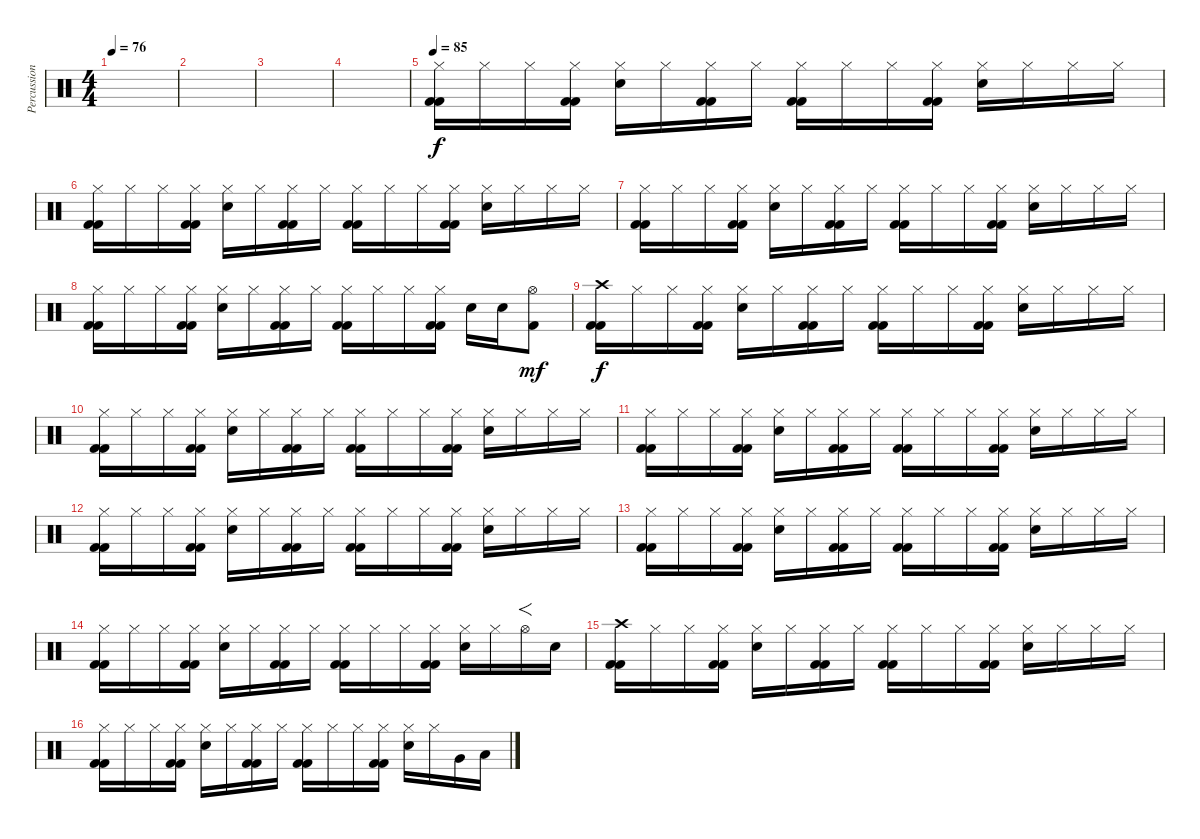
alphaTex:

\track ("Percussion" "Percussion") {instrument percussion}
\staff {score}
\articulation defaults
\ts (4 4)
\tempo 76
\clef neutral
\ks c
|
|
|
|
\tempo 85
("Kick (hit) 2" "Hi-Hat (closed)" "Kick (hit) 2").16 "Hi-Hat (closed)".16 "Hi-Hat (closed)".16 ("Kick (hit) 2" "Hi-Hat (closed)" "Kick (hit) 2").16 ("Hi-Hat (closed)" "Electric Snare (hit)").16 "Hi-Hat (closed)".16 ("Kick (hit) 2" "Hi-Hat (closed)" "Kick (hit) 2").16 "Hi-Hat (closed)".16 ("Kick (hit) 2" "Hi-Hat (closed)" "Kick (hit) 2").16 "Hi-Hat (closed)".16 "Hi-Hat (closed)".16 ("Kick (hit) 2" "Hi-Hat (closed)" "Kick (hit) 2").16 ("Hi-Hat (closed)" "Electric Snare (hit)").16 "Hi-Hat (closed)".16 "Hi-Hat (closed)".16 "Hi-Hat (closed)".16 |
("Kick (hit) 2" "Hi-Hat (closed)" "Kick (hit) 2").16 "Hi-Hat (closed)".16 "Hi-Hat (closed)".16 ("Kick (hit) 2" "Hi-Hat (closed)" "Kick (hit) 2").16 ("Hi-Hat (closed)" "Electric Snare (hit)").16 "Hi-Hat (closed)".16 ("Kick (hit) 2" "Hi-Hat (closed)" "Kick (hit) 2").16 "Hi-Hat (closed)".16 ("Kick (hit) 2" "Hi-Hat (closed)" "Kick (hit) 2").16 "Hi-Hat (closed)".16 "Hi-Hat (closed)".16 ("Kick (hit) 2" "Hi-Hat (closed)" "Kick (hit) 2").16 ("Hi-Hat (closed)" "Electric Snare (hit)").16 "Hi-Hat (closed)".16 "Hi-Hat (closed)".16 "Hi-Hat (closed)".16 |
("Kick (hit) 2" "Hi-Hat (closed)" "Kick (hit) 2").16 "Hi-Hat (closed)".16 "Hi-Hat (closed)".16 ("Kick (hit) 2" "Hi-Hat (closed)" "Kick (hit) 2").16 ("Hi-Hat (closed)" "Electric Snare (hit)").16 "Hi-Hat (closed)".16 ("Kick (hit) 2" "Hi-Hat (closed)" "Kick (hit) 2").16 "Hi-Hat (closed)".16 ("Kick (hit) 2" "Hi-Hat (closed)" "Kick (hit) 2").16 "Hi-Hat (closed)".16 "Hi-Hat (closed)".16 ("Kick (hit) 2" "Hi-Hat (closed)" "Kick (hit) 2").16 ("Hi-Hat (closed)" "Electric Snare (hit)").16 "Hi-Hat (closed)".16 "Hi-Hat (closed)".16 "Hi-Hat (closed)".16 |
("Kick (hit) 2" "Hi-Hat (closed)" "Kick (hit) 2").16 "Hi-Hat (closed)".16 "Hi-Hat (closed)".16 ("Kick (hit) 2" "Hi-Hat (closed)" "Kick (hit) 2").16 ("Hi-Hat (closed)" "Electric Snare (hit)").16 "Hi-Hat (closed)".16 ("Kick (hit) 2" "Hi-Hat (closed)" "Kick (hit) 2").16 "Hi-Hat (closed)".16 ("Kick (hit) 2" "Hi-Hat (closed)" "Kick (hit) 2").16 "Hi-Hat (closed)".16 "Hi-Hat (closed)".16 ("Kick (hit) 2" "Hi-Hat (closed)" "Kick (hit) 2").16 "Electric Snare (hit)".16 "Electric Snare (hit)".16 ("Hi-Hat (open)" "Kick (hit) 2").8{dy mf} |
("Crash high (hit)" "Kick (hit) 2" "Kick (hit) 2").16{dy f} "Hi-Hat (closed)".16 "Hi-Hat (closed)".16 ("Kick (hit) 2" "Hi-Hat (closed)" "Kick (hit) 2").16 ("Hi-Hat (closed)" "Electric Snare (hit)").16 "Hi-Hat (closed)".16 ("Kick (hit) 2" "Hi-Hat (closed)" "Kick (hit) 2").16 "Hi-Hat (closed)".16 ("Kick (hit) 2" "Hi-Hat (closed)" "Kick (hit) 2").16 "Hi-Hat (closed)".16 "Hi-Hat (closed)".16 ("Kick (hit) 2" "Hi-Hat (closed)" "Kick (hit) 2").16 ("Hi-Hat (closed)" "Electric Snare (hit)").16 "Hi-Hat (closed)".16 "Hi-Hat (closed)".16 "Hi-Hat (closed)".16 |
("Kick (hit) 2" "Hi-Hat (closed)" "Kick (hit) 2").16 "Hi-Hat (closed)".16 "Hi-Hat (closed)".16 ("Kick (hit) 2" "Hi-Hat (closed)" "Kick (hit) 2").16 ("Hi-Hat (closed)" "Electric Snare (hit)").16 "Hi-Hat (closed)".16 ("Kick (hit) 2" "Hi-Hat (closed)" "Kick (hit) 2").16 "Hi-Hat (closed)".16 ("Kick (hit) 2" "Hi-Hat (closed)" "Kick (hit) 2").16 "Hi-Hat (closed)".16 "Hi-Hat (closed)".16 ("Kick (hit) 2" "Hi-Hat (closed)" "Kick (hit) 2").16 ("Hi-Hat (closed)" "Electric Snare (hit)").16 "Hi-Hat (closed)".16 "Hi-Hat (closed)".16 "Hi-Hat (closed)".16 |
("Kick (hit) 2" "Hi-Hat (closed)" "Kick (hit) 2").16 "Hi-Hat (closed)".16 "Hi-Hat (closed)".16 ("Kick (hit) 2" "Hi-Hat (closed)" "Kick (hit) 2").16 ("Hi-Hat (closed)" "Electric Snare (hit)").16 "Hi-Hat (closed)".16 ("Kick (hit) 2" "Hi-Hat (closed)" "Kick (hit) 2").16 "Hi-Hat (closed)".16 ("Kick (hit) 2" "Hi-Hat (closed)" "Kick (hit) 2").16 "Hi-Hat (closed)".16 "Hi-Hat (closed)".16 ("Kick (hit) 2" "Hi-Hat (closed)" "Kick (hit) 2").16 ("Hi-Hat (closed)" "Electric Snare (hit)").16 "Hi-Hat (closed)".16 "Hi-Hat (closed)".16 "Hi-Hat (closed)".16 |
("Kick (hit) 2" "Hi-Hat (closed)" "Kick (hit) 2").16 "Hi-Hat (closed)".16 "Hi-Hat (closed)".16 ("Kick (hit) 2" "Hi-Hat (closed)" "Kick (hit) 2").16 ("Hi-Hat (closed)" "Electric Snare (hit)").16 "Hi-Hat (closed)".16 ("Kick (hit) 2" "Hi-Hat (closed)" "Kick (hit) 2").16 "Hi-Hat (closed)".16 ("Kick (hit) 2" "Hi-Hat (closed)" "Kick (hit) 2").16 "Hi-Hat (closed)".16 "Hi-Hat (closed)".16 ("Kick (hit) 2" "Hi-Hat (closed)" "Kick (hit) 2").16 ("Hi-Hat (closed)" "Electric Snare (hit)").16 "Hi-Hat (closed)".16 "Hi-Hat (closed)".16 "Hi-Hat (closed)".16 |
("Kick (hit) 2" "Hi-Hat (closed)" "Kick (hit) 2").16 "Hi-Hat (closed)".16 "Hi-Hat (closed)".16 ("Kick (hit) 2" "Hi-Hat (closed)" "Kick (hit) 2").16 ("Hi-Hat (closed)" "Electric Snare (hit)").16 "Hi-Hat (closed)".16 ("Kick (hit) 2" "Hi-Hat (closed)" "Kick (hit) 2").16 "Hi-Hat (closed)".16 ("Kick (hit) 2" "Hi-Hat (closed)" "Kick (hit) 2").16 "Hi-Hat (closed)".16 "Hi-Hat (closed)".16 ("Kick (hit) 2" "Hi-Hat (closed)" "Kick (hit) 2").16 ("Hi-Hat (closed)" "Electric Snare (hit)").16 "Hi-Hat (closed)".16 "Hi-Hat (closed)".16 "Hi-Hat (closed)".16 |
("Kick (hit) 2" "Hi-Hat (closed)" "Kick (hit) 2").16 "Hi-Hat (closed)".16 "Hi-Hat (closed)".16 ("Kick (hit) 2" "Hi-Hat (closed)" "Kick (hit) 2").16 ("Hi-Hat (closed)" "Electric Snare (hit)").16 "Hi-Hat (closed)".16 ("Kick (hit) 2" "Hi-Hat (closed)" "Kick (hit) 2").16 "Hi-Hat (closed)".16 ("Kick (hit) 2" "Hi-Hat (closed)" "Kick (hit) 2").16 "Hi-Hat (closed)".16 "Hi-Hat (closed)".16 ("Kick (hit) 2" "Hi-Hat (closed)" "Kick (hit) 2").16 ("Hi-Hat (closed)" "Electric Snare (hit)").16 "Hi-Hat (closed)".16 "Hi-Hat (open)".16{f} "Electric Snare (hit)".16 |
("Crash high (hit)" "Kick (hit) 2" "Kick (hit) 2").16 "Hi-Hat (closed)".16 "Hi-Hat (closed)".16 ("Kick (hit) 2" "Hi-Hat (closed)" "Kick (hit) 2").16 ("Hi-Hat (closed)" "Electric Snare (hit)").16 "Hi-Hat (closed)".16 ("Kick (hit) 2" "Hi-Hat (closed)" "Kick (hit) 2").16 "Hi-Hat (closed)".16 ("Kick (hit) 2" "Hi-Hat (closed)" "Kick (hit) 2").16 "Hi-Hat (closed)".16 "Hi-Hat (closed)".16 ("Kick (hit) 2" "Hi-Hat (closed)" "Kick (hit) 2").16 ("Hi-Hat (closed)" "Electric Snare (hit)").16 "Hi-Hat (closed)".16 "Hi-Hat (closed)".16 "Hi-Hat (closed)".16 |
("Kick (hit) 2" "Hi-Hat (closed)" "Kick (hit) 2").16 "Hi-Hat (closed)".16 "Hi-Hat (closed)".16 ("Kick (hit) 2" "Hi-Hat (closed)" "Kick (hit) 2").16 ("Hi-Hat (closed)" "Electric Snare (hit)").16 "Hi-Hat (closed)".16 ("Kick (hit) 2" "Hi-Hat (closed)" "Kick (hit) 2").16 "Hi-Hat (closed)".16 ("Kick (hit) 2" "Hi-Hat (closed)" "Kick (hit) 2").16 "Hi-Hat (closed)".16 "Hi-Hat (closed)".16 ("Kick (hit) 2" "Hi-Hat (closed)" "Kick (hit) 2").16 ("Hi-Hat (closed)" "Electric Snare (hit)").16 "Hi-Hat (closed)".16 "Very Low Tom (hit)".16 "Low Floor Tom (hit)".16
